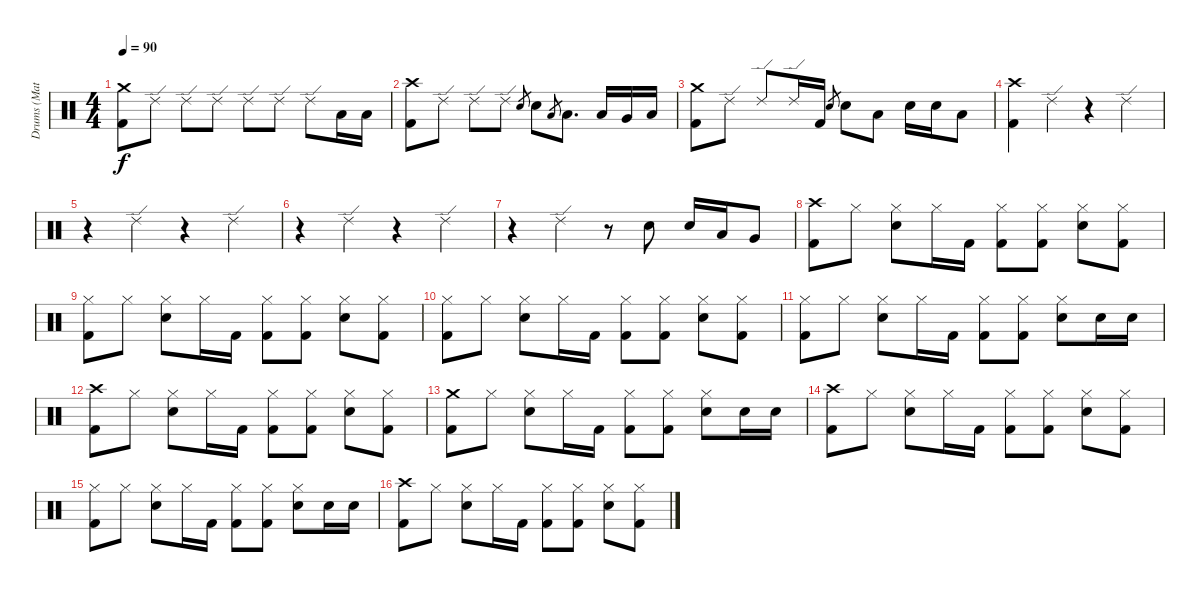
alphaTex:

\track ("Drums (Matt)" "Drums (Mat") {instrument percussion}
\staff {score}
\articulation defaults
\ts (4 4)
\tempo 90
\clef neutral
\ks c
("Crash medium (hit)" "Kick (hit) 2").8{dy f} "Ride (edge) 2".8 "Ride (edge) 2".8 "Ride (edge) 2".8 "Ride (edge) 2".8 "Ride (edge) 2".8 "Ride (edge) 2".8 "Low Tom (hit)".16 "Low Tom (hit)".16 |
("Crash high (hit)" "Kick (hit) 2").8 "Ride (edge) 2".8 "Ride (edge) 2".8 "Ride (edge) 2".8 "Snare (hit) 2".8{gr} "Snare (hit) 2".8 "Low Tom (hit)".8{gr} "Low Tom (hit)".8{d} "Low Tom (hit)".16 "Very Low Tom (hit)".16 "Low Floor Tom (hit)".16 |
("Crash medium (hit)" "Kick (hit) 2").8 "Ride (edge) 2".8 "Ride (edge) 2".8 "Ride (edge) 2".16 "Kick (hit) 2".16 "Snare (hit) 2".8{gr} "Snare (hit) 2".8 "Low Tom (hit)".8 "Snare (hit) 2".16 "Snare (hit) 2".16 "Low Tom (hit)".8 |
("Crash high (hit)" "Kick (hit) 2").4 "Ride (edge) 2".4 r.4 "Ride (edge) 2".4 |
r.4 "Ride (edge) 2".4 r.4 "Ride (edge) 2".4 |
r.4 "Ride (edge) 2".4 r.4 "Ride (edge) 2".4 |
r.4 "Ride (edge) 2".4 r.8 "Snare (hit) 2".8 "Snare (hit) 2".16 "Low Tom (hit)".16 "Very Low Tom (hit)".8 |
("Crash high (hit)" "Kick (hit) 2").8 "Hi-Hat (closed)".8 ("Hi-Hat (closed)" "Snare (hit) 2").8 "Hi-Hat (closed)".16 "Kick (hit) 2".16 ("Hi-Hat (closed)" "Kick (hit) 2").8 ("Hi-Hat (closed)" "Kick (hit) 2").8 ("Hi-Hat (closed)" "Snare (hit) 2").8 ("Hi-Hat (closed)" "Kick (hit) 2").8 |
("Hi-Hat (closed)" "Kick (hit) 2").8 "Hi-Hat (closed)".8 ("Hi-Hat (closed)" "Snare (hit) 2").8 "Hi-Hat (closed)".16 "Kick (hit) 2".16 ("Hi-Hat (closed)" "Kick (hit) 2").8 ("Hi-Hat (closed)" "Kick (hit) 2").8 ("Hi-Hat (closed)" "Snare (hit) 2").8 ("Hi-Hat (closed)" "Kick (hit) 2").8 |
("Hi-Hat (closed)" "Kick (hit) 2").8 "Hi-Hat (closed)".8 ("Hi-Hat (closed)" "Snare (hit) 2").8 "Hi-Hat (closed)".16 "Kick (hit) 2".16 ("Hi-Hat (closed)" "Kick (hit) 2").8 ("Hi-Hat (closed)" "Kick (hit) 2").8 ("Hi-Hat (closed)" "Snare (hit) 2").8 ("Hi-Hat (closed)" "Kick (hit) 2").8 |
("Hi-Hat (closed)" "Kick (hit) 2").8 "Hi-Hat (closed)".8 ("Hi-Hat (closed)" "Snare (hit) 2").8 "Hi-Hat (closed)".16 "Kick (hit) 2".16 ("Hi-Hat (closed)" "Kick (hit) 2").8 ("Hi-Hat (closed)" "Kick (hit) 2").8 ("Hi-Hat (closed)" "Snare (hit) 2").8 "Snare (hit) 2".16 "Snare (hit) 2".16 |
("Crash high (hit)" "Kick (hit) 2").8 "Hi-Hat (closed)".8 ("Hi-Hat (closed)" "Snare (hit) 2").8 "Hi-Hat (closed)".16 "Kick (hit) 2".16 ("Hi-Hat (closed)" "Kick (hit) 2").8 ("Hi-Hat (closed)" "Kick (hit) 2").8 ("Hi-Hat (closed)" "Snare (hit) 2").8 ("Hi-Hat (closed)" "Kick (hit) 2").8 |
("Crash medium (hit)" "Kick (hit) 2").8 "Hi-Hat (closed)".8 ("Hi-Hat (closed)" "Snare (hit) 2").8 "Hi-Hat (closed)".16 "Kick (hit) 2".16 ("Hi-Hat (closed)" "Kick (hit) 2").8 ("Hi-Hat (closed)" "Kick (hit) 2").8 ("Hi-Hat (closed)" "Snare (hit) 2").8 "Snare (hit) 2".16 "Snare (hit) 2".16 |
("Crash high (hit)" "Kick (hit) 2").8 "Hi-Hat (closed)".8 ("Hi-Hat (closed)" "Snare (hit) 2").8 "Hi-Hat (closed)".16 "Kick (hit) 2".16 ("Hi-Hat (closed)" "Kick (hit) 2").8 ("Hi-Hat (closed)" "Kick (hit) 2").8 ("Hi-Hat (closed)" "Snare (hit) 2").8 ("Hi-Hat (closed)" "Kick (hit) 2").8 |
("Hi-Hat (closed)" "Kick (hit) 2").8 "Hi-Hat (closed)".8 ("Hi-Hat (closed)" "Snare (hit) 2").8 "Hi-Hat (closed)".16 "Kick (hit) 2".16 ("Hi-Hat (closed)" "Kick (hit) 2").8 ("Hi-Hat (closed)" "Kick (hit) 2").8 ("Hi-Hat (closed)" "Snare (hit) 2").8 "Snare (hit) 2".16 "Snare (hit) 2".16 |
("Crash high (hit)" "Kick (hit) 2").8 "Hi-Hat (closed)".8 ("Hi-Hat (closed)" "Snare (hit) 2").8 "Hi-Hat (closed)".16 "Kick (hit) 2".16 ("Hi-Hat (closed)" "Kick (hit) 2").8 ("Hi-Hat (closed)" "Kick (hit) 2").8 ("Hi-Hat (closed)" "Snare (hit) 2").8 ("Hi-Hat (closed)" "Kick (hit) 2").8
